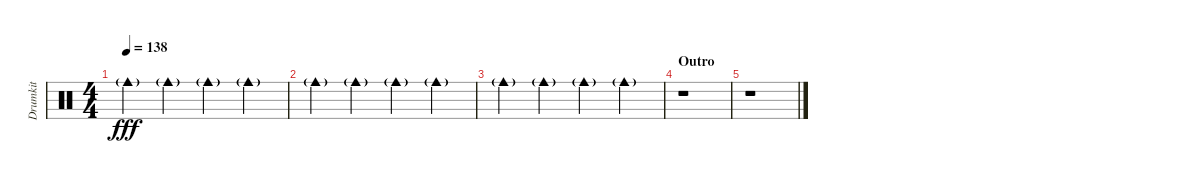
\track ("Drumkit" "Drumkit") {instrument percussion}
\staff {score}
\articulation defaults
\ts (4 4)
\tempo 138
\clef neutral
\ks c "Cowbell medium (hit)"{g}.4{dy fff} "Cowbell medium (hit)"{g}.4 "Cowbell medium (hit)"{g}.4 "Cowbell medium (hit)"{g}.4
|
"Cowbell medium (hit)"{g}.4 "Cowbell medium (hit)"{g}.4 "Cowbell medium (hit)"{g}.4 "Cowbell medium (hit)"{g}.4 |
"Cowbell medium (hit)"{g}.4 "Cowbell medium (hit)"{g}.4 "Cowbell medium (hit)"{g}.4 "Cowbell medium (hit)"{g}.4 |
\section ("" "Outro")
r.1 |
r.1
